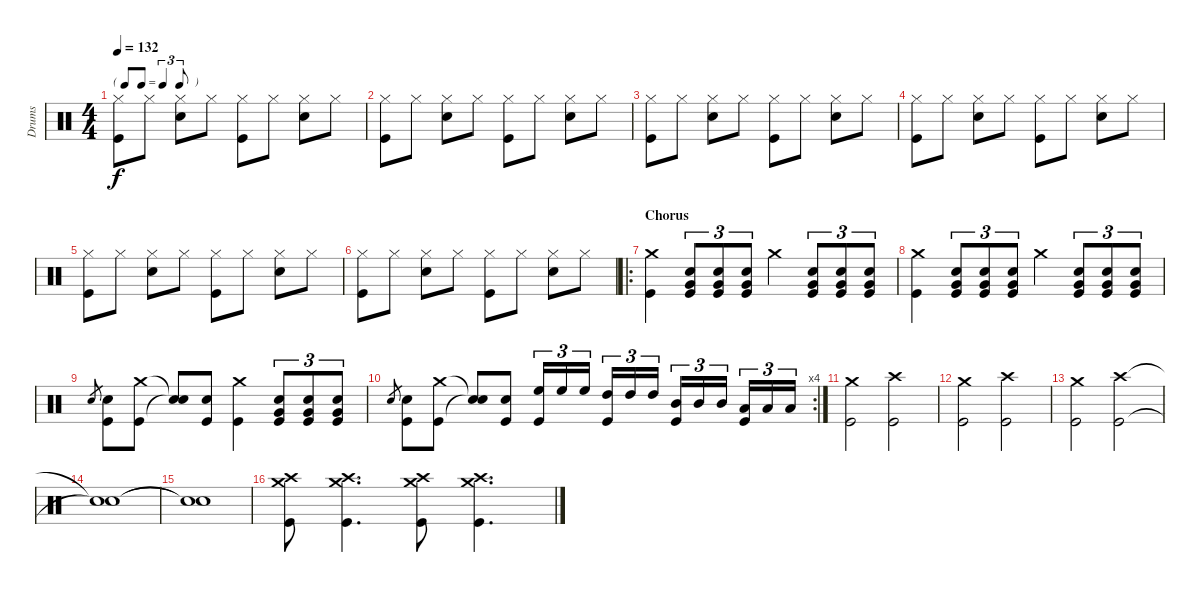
\track ("Drums" "Drums") {instrument percussion}
\staff {score}
\articulation defaults
\ts (4 4)
\tf triplet8th
\tempo 132
\clef neutral
\ks c
("Hi-Hat (closed)" "Kick (hit)").8{dy f} "Hi-Hat (closed)".8 ("Hi-Hat (closed)" "Snare (hit) 2").8 "Hi-Hat (closed)".8 ("Hi-Hat (closed)" "Kick (hit)").8 "Hi-Hat (closed)".8 ("Hi-Hat (closed)" "Snare (hit) 2").8 "Hi-Hat (closed)".8 |
("Hi-Hat (closed)" "Kick (hit)").8 "Hi-Hat (closed)".8 ("Hi-Hat (closed)" "Snare (hit) 2").8 "Hi-Hat (closed)".8 ("Hi-Hat (closed)" "Kick (hit)").8 "Hi-Hat (closed)".8 ("Hi-Hat (closed)" "Snare (hit) 2").8 "Hi-Hat (closed)".8 |
("Hi-Hat (closed)" "Kick (hit)").8 "Hi-Hat (closed)".8 ("Hi-Hat (closed)" "Snare (hit) 2").8 "Hi-Hat (closed)".8 ("Hi-Hat (closed)" "Kick (hit)").8 "Hi-Hat (closed)".8 ("Hi-Hat (closed)" "Snare (hit) 2").8 "Hi-Hat (closed)".8 |
("Hi-Hat (closed)" "Kick (hit)").8 "Hi-Hat (closed)".8 ("Hi-Hat (closed)" "Snare (hit) 2").8 "Hi-Hat (closed)".8 ("Hi-Hat (closed)" "Kick (hit)").8 "Hi-Hat (closed)".8 ("Hi-Hat (closed)" "Snare (hit) 2").8 "Hi-Hat (closed)".8 |
("Hi-Hat (closed)" "Kick (hit)").8 "Hi-Hat (closed)".8 ("Hi-Hat (closed)" "Snare (hit) 2").8 "Hi-Hat (closed)".8 ("Hi-Hat (closed)" "Kick (hit)").8 "Hi-Hat (closed)".8 ("Hi-Hat (closed)" "Snare (hit) 2").8 "Hi-Hat (closed)".8 |
("Hi-Hat (closed)" "Kick (hit)").8 "Hi-Hat (closed)".8 ("Hi-Hat (closed)" "Snare (hit) 2").8 "Hi-Hat (closed)".8 ("Hi-Hat (closed)" "Kick (hit)").8 "Hi-Hat (closed)".8 ("Hi-Hat (closed)" "Snare (hit) 2").8 "Hi-Hat (closed)".8 |
\ro
\section ("" "Chorus")
("Crash medium (hit)" "Kick (hit)").4 ("Very Low Tom (hit)" "Snare (hit) 2" "Kick (hit)").8{tu (3 2)} ("Very Low Tom (hit)" "Snare (hit) 2" "Kick (hit)").8{tu (3 2)} ("Very Low Tom (hit)" "Snare (hit) 2" "Kick (hit)").8{tu (3 2)} "Crash medium (hit)".4 ("Very Low Tom (hit)" "Snare (hit) 2" "Kick (hit)").8{tu (3 2)} ("Very Low Tom (hit)" "Snare (hit) 2" "Kick (hit)").8{tu (3 2)} ("Very Low Tom (hit)" "Snare (hit) 2" "Kick (hit)").8{tu (3 2)} |
("Crash medium (hit)" "Kick (hit)").4 ("Very Low Tom (hit)" "Snare (hit) 2" "Kick (hit)").8{tu (3 2)} ("Very Low Tom (hit)" "Snare (hit) 2" "Kick (hit)").8{tu (3 2)} ("Very Low Tom (hit)" "Snare (hit) 2" "Kick (hit)").8{tu (3 2)} "Crash medium (hit)".4 ("Very Low Tom (hit)" "Snare (hit) 2" "Kick (hit)").8{tu (3 2)} ("Very Low Tom (hit)" "Snare (hit) 2" "Kick (hit)").8{tu (3 2)} ("Very Low Tom (hit)" "Snare (hit) 2" "Kick (hit)").8{tu (3 2)} |
"Snare (hit) 2".8{gr} ("Snare (hit) 2" "Kick (hit)").8 ("Crash medium (hit)" "Kick (hit)").8 ("Snare (hit)"{t} "Snare (hit)"{t}).8 ("Snare (hit) 2" "Kick (hit)").8 ("Crash medium (hit)" "Kick (hit)").4 ("Very Low Tom (hit)" "Snare (hit) 2" "Kick (hit)").8{tu (3 2)} ("Very Low Tom (hit)" "Snare (hit) 2" "Kick (hit)").8{tu (3 2)} ("Very Low Tom (hit)" "Snare (hit) 2" "Kick (hit)").8{tu (3 2)} |
\rc 4 "Snare (hit) 2".8{gr}
("Snare (hit) 2" "Kick (hit)").8 ("Crash medium (hit)" "Kick (hit)").8 ("Snare (hit)"{t} "Snare (hit)"{t}).8 ("Snare (hit) 2" "Kick (hit)").8 ("High Floor Tom (hit)" "Kick (hit)").16{tu (3 2)} "High Floor Tom (hit)".16{tu (3 2)} "High Floor Tom (hit)".16{tu (3 2)} ("High Tom (hit)" "Kick (hit)").16{tu (3 2)} "High Tom (hit)".16{tu (3 2)} "High Tom (hit)".16{tu (3 2)} ("Mid Tom (hit)" "Kick (hit)").16{tu (3 2)} "Mid Tom (hit)".16{tu (3 2)} "Mid Tom (hit)".16{tu (3 2)} ("Low Tom (hit)" "Kick (hit)").16{tu (3 2)} "Low Tom (hit)".16{tu (3 2)} "Low Tom (hit)".16{tu (3 2)} |
("Crash medium (hit)" "Kick (hit)").2 ("Crash high (hit)" "Kick (hit)").2 |
("Crash medium (hit)" "Kick (hit)").2 ("Crash high (hit)" "Kick (hit)").2 |
("Crash medium (hit)" "Kick (hit)").2 ("Crash high (hit)" "Kick (hit)").2 |
("Snare (hit)"{t} "Snare (hit)"{t}).1 |
("Snare (hit)"{t} "Snare (hit)"{t}).1 |
("Crash high (hit)" "Crash medium (hit)" "Kick (hit)").8 ("Crash high (hit)" "Crash medium (hit)" "Kick (hit)").4{d} ("Crash high (hit)" "Crash medium (hit)" "Kick (hit)").8 ("Crash high (hit)" "Crash medium (hit)" "Kick (hit)").4{d}
